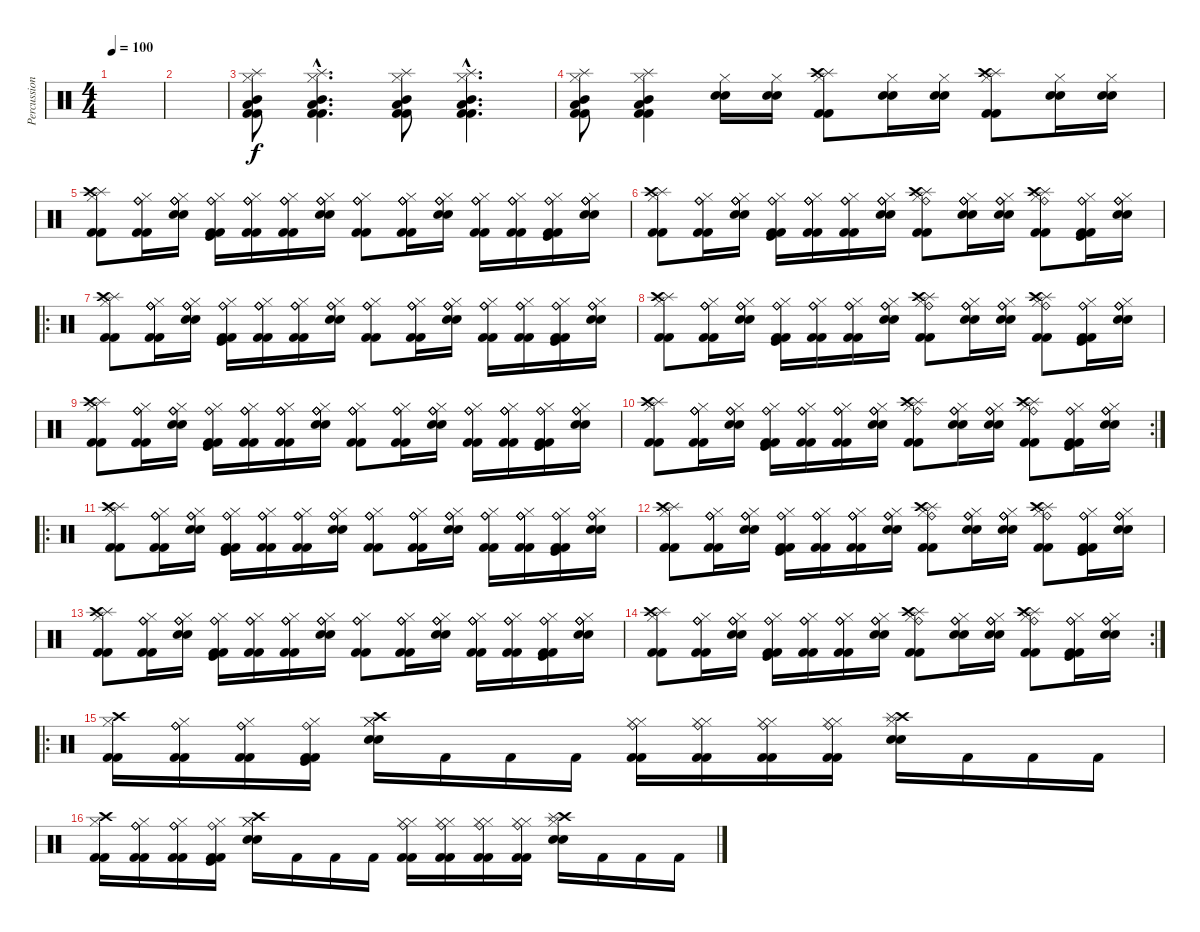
\track ("Percussion" "Percussion") {instrument percussion}
\staff {score}
\articulation defaults
\ts (4 4)
\tempo 100
\clef neutral
\ks c
|
|
("Splash (hit)" "Hi-Hat (closed)" "Low Tom (hit)" "Mid Tom (hit)" "Kick (hit) 2" "Kick (hit) 2").8 ("Splash (hit)"{hac} "Hi-Hat (closed)"{hac} "Low Tom (hit)"{hac} "Mid Tom (hit)"{hac} "Kick (hit) 2"{hac} "Kick (hit) 2"{hac}).4{d} ("Splash (hit)" "Hi-Hat (closed)" "Low Tom (hit)" "Mid Tom (hit)" "Kick (hit) 2" "Kick (hit) 2").8 ("Splash (hit)"{hac} "Hi-Hat (closed)"{hac} "Low Tom (hit)"{hac} "Mid Tom (hit)"{hac} "Kick (hit) 2"{hac} "Kick (hit) 2"{hac}).4{d} |
("Splash (hit)" "Hi-Hat (closed)" "Low Tom (hit)" "Mid Tom (hit)" "Kick (hit) 2" "Kick (hit) 2").8 ("Splash (hit)" "Hi-Hat (closed)" "Low Tom (hit)" "Mid Tom (hit)" "Kick (hit) 2" "Kick (hit) 2").4 ("Hi-Hat (closed)" "Snare (hit) 2" "Snare (hit) 2").16 ("Hi-Hat (closed)" "Snare (hit) 2" "Snare (hit) 2").16 ("Splash (hit)" "Crash high (hit)" "Hi-Hat (closed)" "Kick (hit) 2" "Kick (hit) 2").8 ("Hi-Hat (closed)" "Snare (hit) 2" "Snare (hit) 2").16 ("Hi-Hat (closed)" "Snare (hit) 2" "Snare (hit) 2").16 ("Splash (hit)" "Crash high (hit)" "Hi-Hat (closed)" "Kick (hit) 2" "Kick (hit) 2").8 ("Hi-Hat (closed)" "Snare (hit) 2" "Snare (hit) 2").16 ("Hi-Hat (closed)" "Snare (hit) 2" "Snare (hit) 2").16 |
("Splash (hit)" "Crash high (hit)" "Hi-Hat (closed)" "Kick (hit) 2" "Kick (hit) 2").8 ("Ride (bell)" "Ride (bell)" "Ride (bell)" "Hi-Hat (closed)" "Kick (hit) 2" "Kick (hit) 2").16 ("Ride (bell)" "Ride (bell)" "Ride (bell)" "Hi-Hat (closed)" "Snare (hit) 2" "Snare (hit) 2").16 ("Ride (bell)" "Ride (bell)" "Kick (hit)" "Hi-Hat (closed)" "Kick (hit) 2" "Kick (hit) 2").16 ("Ride (bell)" "Ride (bell)" "Ride (bell)" "Hi-Hat (closed)" "Kick (hit) 2" "Kick (hit) 2").16 ("Ride (bell)" "Ride (bell)" "Ride (bell)" "Hi-Hat (closed)" "Kick (hit) 2" "Kick (hit) 2").16 ("Ride (bell)" "Ride (bell)" "Ride (bell)" "Hi-Hat (closed)" "Snare (hit) 2" "Snare (hit) 2").16 ("Ride (bell)" "Ride (bell)" "Ride (bell)" "Hi-Hat (closed)" "Kick (hit) 2" "Kick (hit) 2").8 ("Ride (bell)" "Ride (bell)" "Ride (bell)" "Hi-Hat (closed)" "Kick (hit) 2" "Kick (hit) 2").16 ("Ride (bell)" "Ride (bell)" "Ride (bell)" "Hi-Hat (closed)" "Snare (hit) 2" "Snare (hit) 2").16 ("Ride (bell)" "Ride (bell)" "Ride (bell)" "Hi-Hat (closed)" "Kick (hit) 2" "Kick (hit) 2").16 ("Ride (bell)" "Ride (bell)" "Ride (bell)" "Hi-Hat (closed)" "Kick (hit) 2" "Kick (hit) 2").16 ("Kick (hit)" "Ride (bell)" "Ride (bell)" "Hi-Hat (closed)" "Kick (hit) 2" "Kick (hit) 2").16 ("Ride (bell)" "Ride (bell)" "Ride (bell)" "Hi-Hat (closed)" "Snare (hit) 2" "Snare (hit) 2").16 |
("Splash (hit)" "Crash high (hit)" "Hi-Hat (closed)" "Kick (hit) 2" "Kick (hit) 2").8 ("Ride (bell)" "Ride (bell)" "Ride (bell)" "Hi-Hat (closed)" "Kick (hit) 2" "Kick (hit) 2").16 ("Ride (bell)" "Ride (bell)" "Ride (bell)" "Hi-Hat (closed)" "Snare (hit) 2" "Snare (hit) 2").16 ("Ride (bell)" "Ride (bell)" "Kick (hit)" "Hi-Hat (closed)" "Kick (hit) 2" "Kick (hit) 2").16 ("Ride (bell)" "Ride (bell)" "Ride (bell)" "Hi-Hat (closed)" "Kick (hit) 2" "Kick (hit) 2").16 ("Ride (bell)" "Ride (bell)" "Ride (bell)" "Hi-Hat (closed)" "Kick (hit) 2" "Kick (hit) 2").16 ("Ride (bell)" "Ride (bell)" "Ride (bell)" "Hi-Hat (closed)" "Snare (hit) 2" "Snare (hit) 2").16 ("Splash (hit)" "Ride (bell)" "Crash high (hit)" "Hi-Hat (closed)" "Kick (hit) 2" "Kick (hit) 2").8 ("Ride (bell)" "Ride (bell)" "Ride (bell)" "Hi-Hat (closed)" "Snare (hit) 2" "Snare (hit) 2").16 ("Ride (bell)" "Ride (bell)" "Ride (bell)" "Hi-Hat (closed)" "Snare (hit) 2" "Snare (hit) 2").16 ("Splash (hit)" "Ride (bell)" "Crash high (hit)" "Hi-Hat (closed)" "Kick (hit) 2" "Kick (hit) 2").8 ("Kick (hit)" "Ride (bell)" "Ride (bell)" "Hi-Hat (closed)" "Kick (hit) 2" "Kick (hit) 2").16 ("Ride (bell)" "Ride (bell)" "Ride (bell)" "Hi-Hat (closed)" "Snare (hit) 2" "Snare (hit) 2").16 |
\ro
("Splash (hit)" "Crash high (hit)" "Hi-Hat (closed)" "Kick (hit) 2" "Kick (hit) 2").8 ("Ride (bell)" "Ride (bell)" "Ride (bell)" "Hi-Hat (closed)" "Kick (hit) 2" "Kick (hit) 2").16 ("Ride (bell)" "Ride (bell)" "Ride (bell)" "Hi-Hat (closed)" "Snare (hit) 2" "Snare (hit) 2").16 ("Ride (bell)" "Ride (bell)" "Kick (hit)" "Hi-Hat (closed)" "Kick (hit) 2" "Kick (hit) 2").16 ("Ride (bell)" "Ride (bell)" "Ride (bell)" "Hi-Hat (closed)" "Kick (hit) 2" "Kick (hit) 2").16 ("Ride (bell)" "Ride (bell)" "Ride (bell)" "Hi-Hat (closed)" "Kick (hit) 2" "Kick (hit) 2").16 ("Ride (bell)" "Ride (bell)" "Ride (bell)" "Hi-Hat (closed)" "Snare (hit) 2" "Snare (hit) 2").16 ("Ride (bell)" "Ride (bell)" "Ride (bell)" "Hi-Hat (closed)" "Kick (hit) 2" "Kick (hit) 2").8 ("Ride (bell)" "Ride (bell)" "Ride (bell)" "Hi-Hat (closed)" "Kick (hit) 2" "Kick (hit) 2").16 ("Ride (bell)" "Ride (bell)" "Ride (bell)" "Hi-Hat (closed)" "Snare (hit) 2" "Snare (hit) 2").16 ("Ride (bell)" "Ride (bell)" "Ride (bell)" "Hi-Hat (closed)" "Kick (hit) 2" "Kick (hit) 2").16 ("Ride (bell)" "Ride (bell)" "Ride (bell)" "Hi-Hat (closed)" "Kick (hit) 2" "Kick (hit) 2").16 ("Kick (hit)" "Ride (bell)" "Ride (bell)" "Hi-Hat (closed)" "Kick (hit) 2" "Kick (hit) 2").16 ("Ride (bell)" "Ride (bell)" "Ride (bell)" "Hi-Hat (closed)" "Snare (hit) 2" "Snare (hit) 2").16 |
("Splash (hit)" "Crash high (hit)" "Hi-Hat (closed)" "Kick (hit) 2" "Kick (hit) 2").8 ("Ride (bell)" "Ride (bell)" "Ride (bell)" "Hi-Hat (closed)" "Kick (hit) 2" "Kick (hit) 2").16 ("Ride (bell)" "Ride (bell)" "Ride (bell)" "Hi-Hat (closed)" "Snare (hit) 2" "Snare (hit) 2").16 ("Ride (bell)" "Ride (bell)" "Kick (hit)" "Hi-Hat (closed)" "Kick (hit) 2" "Kick (hit) 2").16 ("Ride (bell)" "Ride (bell)" "Ride (bell)" "Hi-Hat (closed)" "Kick (hit) 2" "Kick (hit) 2").16 ("Ride (bell)" "Ride (bell)" "Ride (bell)" "Hi-Hat (closed)" "Kick (hit) 2" "Kick (hit) 2").16 ("Ride (bell)" "Ride (bell)" "Ride (bell)" "Hi-Hat (closed)" "Snare (hit) 2" "Snare (hit) 2").16 ("Splash (hit)" "Ride (bell)" "Crash high (hit)" "Hi-Hat (closed)" "Kick (hit) 2" "Kick (hit) 2").8 ("Ride (bell)" "Ride (bell)" "Ride (bell)" "Hi-Hat (closed)" "Snare (hit) 2" "Snare (hit) 2").16 ("Ride (bell)" "Ride (bell)" "Ride (bell)" "Hi-Hat (closed)" "Snare (hit) 2" "Snare (hit) 2").16 ("Splash (hit)" "Ride (bell)" "Crash high (hit)" "Hi-Hat (closed)" "Kick (hit) 2" "Kick (hit) 2").8 ("Kick (hit)" "Ride (bell)" "Ride (bell)" "Hi-Hat (closed)" "Kick (hit) 2" "Kick (hit) 2").16 ("Ride (bell)" "Ride (bell)" "Ride (bell)" "Hi-Hat (closed)" "Snare (hit) 2" "Snare (hit) 2").16 |
("Splash (hit)" "Crash high (hit)" "Hi-Hat (closed)" "Kick (hit) 2" "Kick (hit) 2").8 ("Ride (bell)" "Ride (bell)" "Ride (bell)" "Hi-Hat (closed)" "Kick (hit) 2" "Kick (hit) 2").16 ("Ride (bell)" "Ride (bell)" "Ride (bell)" "Hi-Hat (closed)" "Snare (hit) 2" "Snare (hit) 2").16 ("Ride (bell)" "Ride (bell)" "Kick (hit)" "Hi-Hat (closed)" "Kick (hit) 2" "Kick (hit) 2").16 ("Ride (bell)" "Ride (bell)" "Ride (bell)" "Hi-Hat (closed)" "Kick (hit) 2" "Kick (hit) 2").16 ("Ride (bell)" "Ride (bell)" "Ride (bell)" "Hi-Hat (closed)" "Kick (hit) 2" "Kick (hit) 2").16 ("Ride (bell)" "Ride (bell)" "Ride (bell)" "Hi-Hat (closed)" "Snare (hit) 2" "Snare (hit) 2").16 ("Ride (bell)" "Ride (bell)" "Ride (bell)" "Hi-Hat (closed)" "Kick (hit) 2" "Kick (hit) 2").8 ("Ride (bell)" "Ride (bell)" "Ride (bell)" "Hi-Hat (closed)" "Kick (hit) 2" "Kick (hit) 2").16 ("Ride (bell)" "Ride (bell)" "Ride (bell)" "Hi-Hat (closed)" "Snare (hit) 2" "Snare (hit) 2").16 ("Ride (bell)" "Ride (bell)" "Ride (bell)" "Hi-Hat (closed)" "Kick (hit) 2" "Kick (hit) 2").16 ("Ride (bell)" "Ride (bell)" "Ride (bell)" "Hi-Hat (closed)" "Kick (hit) 2" "Kick (hit) 2").16 ("Kick (hit)" "Ride (bell)" "Ride (bell)" "Hi-Hat (closed)" "Kick (hit) 2" "Kick (hit) 2").16 ("Ride (bell)" "Ride (bell)" "Ride (bell)" "Hi-Hat (closed)" "Snare (hit) 2" "Snare (hit) 2").16 |
\rc 2
("Splash (hit)" "Crash high (hit)" "Hi-Hat (closed)" "Kick (hit) 2" "Kick (hit) 2").8 ("Ride (bell)" "Ride (bell)" "Ride (bell)" "Hi-Hat (closed)" "Kick (hit) 2" "Kick (hit) 2").16 ("Ride (bell)" "Ride (bell)" "Ride (bell)" "Hi-Hat (closed)" "Snare (hit) 2" "Snare (hit) 2").16 ("Ride (bell)" "Ride (bell)" "Kick (hit)" "Hi-Hat (closed)" "Kick (hit) 2" "Kick (hit) 2").16 ("Ride (bell)" "Ride (bell)" "Ride (bell)" "Hi-Hat (closed)" "Kick (hit) 2" "Kick (hit) 2").16 ("Ride (bell)" "Ride (bell)" "Ride (bell)" "Hi-Hat (closed)" "Kick (hit) 2" "Kick (hit) 2").16 ("Ride (bell)" "Ride (bell)" "Ride (bell)" "Hi-Hat (closed)" "Snare (hit) 2" "Snare (hit) 2").16 ("Splash (hit)" "Ride (bell)" "Crash high (hit)" "Hi-Hat (closed)" "Kick (hit) 2" "Kick (hit) 2").8 ("Ride (bell)" "Ride (bell)" "Ride (bell)" "Hi-Hat (closed)" "Snare (hit) 2" "Snare (hit) 2").16 ("Ride (bell)" "Ride (bell)" "Ride (bell)" "Hi-Hat (closed)" "Snare (hit) 2" "Snare (hit) 2").16 ("Splash (hit)" "Ride (bell)" "Crash high (hit)" "Hi-Hat (closed)" "Kick (hit) 2" "Kick (hit) 2").8 ("Kick (hit)" "Ride (bell)" "Ride (bell)" "Hi-Hat (closed)" "Kick (hit) 2" "Kick (hit) 2").16 ("Ride (bell)" "Ride (bell)" "Ride (bell)" "Hi-Hat (closed)" "Snare (hit) 2" "Snare (hit) 2").16 |
\ro
("Splash (hit)" "Crash high (hit)" "Hi-Hat (closed)" "Kick (hit) 2" "Kick (hit) 2").8 ("Ride (bell)" "Ride (bell)" "Ride (bell)" "Hi-Hat (closed)" "Kick (hit) 2" "Kick (hit) 2").16 ("Ride (bell)" "Ride (bell)" "Ride (bell)" "Hi-Hat (closed)" "Snare (hit) 2" "Snare (hit) 2").16 ("Ride (bell)" "Ride (bell)" "Kick (hit)" "Hi-Hat (closed)" "Kick (hit) 2" "Kick (hit) 2").16 ("Ride (bell)" "Ride (bell)" "Ride (bell)" "Hi-Hat (closed)" "Kick (hit) 2" "Kick (hit) 2").16 ("Ride (bell)" "Ride (bell)" "Ride (bell)" "Hi-Hat (closed)" "Kick (hit) 2" "Kick (hit) 2").16 ("Ride (bell)" "Ride (bell)" "Ride (bell)" "Hi-Hat (closed)" "Snare (hit) 2" "Snare (hit) 2").16 ("Ride (bell)" "Ride (bell)" "Ride (bell)" "Hi-Hat (closed)" "Kick (hit) 2" "Kick (hit) 2").8 ("Ride (bell)" "Ride (bell)" "Ride (bell)" "Hi-Hat (closed)" "Kick (hit) 2" "Kick (hit) 2").16 ("Ride (bell)" "Ride (bell)" "Ride (bell)" "Hi-Hat (closed)" "Snare (hit) 2" "Snare (hit) 2").16 ("Ride (bell)" "Ride (bell)" "Ride (bell)" "Hi-Hat (closed)" "Kick (hit) 2" "Kick (hit) 2").16 ("Ride (bell)" "Ride (bell)" "Ride (bell)" "Hi-Hat (closed)" "Kick (hit) 2" "Kick (hit) 2").16 ("Kick (hit)" "Ride (bell)" "Ride (bell)" "Hi-Hat (closed)" "Kick (hit) 2" "Kick (hit) 2").16 ("Ride (bell)" "Ride (bell)" "Ride (bell)" "Hi-Hat (closed)" "Snare (hit) 2" "Snare (hit) 2").16 |
("Splash (hit)" "Crash high (hit)" "Hi-Hat (closed)" "Kick (hit) 2" "Kick (hit) 2").8 ("Ride (bell)" "Ride (bell)" "Ride (bell)" "Hi-Hat (closed)" "Kick (hit) 2" "Kick (hit) 2").16 ("Ride (bell)" "Ride (bell)" "Ride (bell)" "Hi-Hat (closed)" "Snare (hit) 2" "Snare (hit) 2").16 ("Ride (bell)" "Ride (bell)" "Kick (hit)" "Hi-Hat (closed)" "Kick (hit) 2" "Kick (hit) 2").16 ("Ride (bell)" "Ride (bell)" "Ride (bell)" "Hi-Hat (closed)" "Kick (hit) 2" "Kick (hit) 2").16 ("Ride (bell)" "Ride (bell)" "Ride (bell)" "Hi-Hat (closed)" "Kick (hit) 2" "Kick (hit) 2").16 ("Ride (bell)" "Ride (bell)" "Ride (bell)" "Hi-Hat (closed)" "Snare (hit) 2" "Snare (hit) 2").16 ("Splash (hit)" "Ride (bell)" "Crash high (hit)" "Hi-Hat (closed)" "Kick (hit) 2" "Kick (hit) 2").8 ("Ride (bell)" "Ride (bell)" "Ride (bell)" "Hi-Hat (closed)" "Snare (hit) 2" "Snare (hit) 2").16 ("Ride (bell)" "Ride (bell)" "Ride (bell)" "Hi-Hat (closed)" "Snare (hit) 2" "Snare (hit) 2").16 ("Splash (hit)" "Ride (bell)" "Crash high (hit)" "Hi-Hat (closed)" "Kick (hit) 2" "Kick (hit) 2").8 ("Kick (hit)" "Ride (bell)" "Ride (bell)" "Hi-Hat (closed)" "Kick (hit) 2" "Kick (hit) 2").16 ("Ride (bell)" "Ride (bell)" "Ride (bell)" "Hi-Hat (closed)" "Snare (hit) 2" "Snare (hit) 2").16 |
("Splash (hit)" "Crash high (hit)" "Hi-Hat (closed)" "Kick (hit) 2" "Kick (hit) 2").8 ("Ride (bell)" "Ride (bell)" "Ride (bell)" "Hi-Hat (closed)" "Kick (hit) 2" "Kick (hit) 2").16 ("Ride (bell)" "Ride (bell)" "Ride (bell)" "Hi-Hat (closed)" "Snare (hit) 2" "Snare (hit) 2").16 ("Ride (bell)" "Ride (bell)" "Kick (hit)" "Hi-Hat (closed)" "Kick (hit) 2" "Kick (hit) 2").16 ("Ride (bell)" "Ride (bell)" "Ride (bell)" "Hi-Hat (closed)" "Kick (hit) 2" "Kick (hit) 2").16 ("Ride (bell)" "Ride (bell)" "Ride (bell)" "Hi-Hat (closed)" "Kick (hit) 2" "Kick (hit) 2").16 ("Ride (bell)" "Ride (bell)" "Ride (bell)" "Hi-Hat (closed)" "Snare (hit) 2" "Snare (hit) 2").16 ("Ride (bell)" "Ride (bell)" "Ride (bell)" "Hi-Hat (closed)" "Kick (hit) 2" "Kick (hit) 2").8 ("Ride (bell)" "Ride (bell)" "Ride (bell)" "Hi-Hat (closed)" "Kick (hit) 2" "Kick (hit) 2").16 ("Ride (bell)" "Ride (bell)" "Ride (bell)" "Hi-Hat (closed)" "Snare (hit) 2" "Snare (hit) 2").16 ("Ride (bell)" "Ride (bell)" "Ride (bell)" "Hi-Hat (closed)" "Kick (hit) 2" "Kick (hit) 2").16 ("Ride (bell)" "Ride (bell)" "Ride (bell)" "Hi-Hat (closed)" "Kick (hit) 2" "Kick (hit) 2").16 ("Kick (hit)" "Ride (bell)" "Ride (bell)" "Hi-Hat (closed)" "Kick (hit) 2" "Kick (hit) 2").16 ("Ride (bell)" "Ride (bell)" "Ride (bell)" "Hi-Hat (closed)" "Snare (hit) 2" "Snare (hit) 2").16 |
\rc 2
("Splash (hit)" "Crash high (hit)" "Hi-Hat (closed)" "Kick (hit) 2" "Kick (hit) 2").8 ("Ride (bell)" "Ride (bell)" "Ride (bell)" "Hi-Hat (closed)" "Kick (hit) 2" "Kick (hit) 2").16 ("Ride (bell)" "Ride (bell)" "Ride (bell)" "Hi-Hat (closed)" "Snare (hit) 2" "Snare (hit) 2").16 ("Ride (bell)" "Ride (bell)" "Kick (hit)" "Hi-Hat (closed)" "Kick (hit) 2" "Kick (hit) 2").16 ("Ride (bell)" "Ride (bell)" "Ride (bell)" "Hi-Hat (closed)" "Kick (hit) 2" "Kick (hit) 2").16 ("Ride (bell)" "Ride (bell)" "Ride (bell)" "Hi-Hat (closed)" "Kick (hit) 2" "Kick (hit) 2").16 ("Ride (bell)" "Ride (bell)" "Ride (bell)" "Hi-Hat (closed)" "Snare (hit) 2" "Snare (hit) 2").16 ("Splash (hit)" "Ride (bell)" "Crash high (hit)" "Hi-Hat (closed)" "Kick (hit) 2" "Kick (hit) 2").8 ("Ride (bell)" "Ride (bell)" "Ride (bell)" "Hi-Hat (closed)" "Snare (hit) 2" "Snare (hit) 2").16 ("Ride (bell)" "Ride (bell)" "Ride (bell)" "Hi-Hat (closed)" "Snare (hit) 2" "Snare (hit) 2").16 ("Splash (hit)" "Ride (bell)" "Crash high (hit)" "Hi-Hat (closed)" "Kick (hit) 2" "Kick (hit) 2").8 ("Kick (hit)" "Ride (bell)" "Ride (bell)" "Hi-Hat (closed)" "Kick (hit) 2" "Kick (hit) 2").16 ("Ride (bell)" "Ride (bell)" "Ride (bell)" "Hi-Hat (closed)" "Snare (hit) 2" "Snare (hit) 2").16 |
\ro
("Crash high (hit)" "Hi-Hat (closed)" "Kick (hit) 2" "Kick (hit) 2").16 ("Ride (bell)" "Ride (bell)" "Hi-Hat (closed)" "Kick (hit) 2" "Kick (hit) 2").16 ("Ride (bell)" "Ride (bell)" "Hi-Hat (closed)" "Kick (hit) 2" "Kick (hit) 2").16 ("Ride (bell)" "Kick (hit)" "Hi-Hat (closed)" "Kick (hit) 2" "Kick (hit) 2").16 ("Crash high (hit)" "Hi-Hat (closed)" "Hi-Hat (closed)" "Snare (hit) 2" "Snare (hit) 2").16 "Kick (hit) 2".16 "Kick (hit) 2".16 "Kick (hit) 2".16 ("Ride (bell)" "Hi-Hat (closed)" "Hi-Hat (closed)" "Kick (hit) 2" "Kick (hit) 2").16 ("Ride (bell)" "Hi-Hat (closed)" "Hi-Hat (closed)" "Kick (hit) 2" "Kick (hit) 2").16 ("Ride (bell)" "Hi-Hat (closed)" "Hi-Hat (closed)" "Kick (hit) 2" "Kick (hit) 2").16 ("Ride (bell)" "Hi-Hat (closed)" "Hi-Hat (closed)" "Kick (hit) 2" "Kick (hit) 2").16 ("Crash high (hit)" "Splash (hit)" "Hi-Hat (closed)" "Snare (hit) 2" "Snare (hit) 2").16 "Kick (hit) 2".16 "Kick (hit) 2".16 "Kick (hit) 2".16 |
("Crash high (hit)" "Hi-Hat (closed)" "Kick (hit) 2" "Kick (hit) 2").16 ("Ride (bell)" "Ride (bell)" "Hi-Hat (closed)" "Kick (hit) 2" "Kick (hit) 2").16 ("Ride (bell)" "Ride (bell)" "Hi-Hat (closed)" "Kick (hit) 2" "Kick (hit) 2").16 ("Ride (bell)" "Kick (hit)" "Hi-Hat (closed)" "Kick (hit) 2" "Kick (hit) 2").16 ("Crash high (hit)" "Hi-Hat (closed)" "Hi-Hat (closed)" "Snare (hit) 2" "Snare (hit) 2").16 "Kick (hit) 2".16 "Kick (hit) 2".16 "Kick (hit) 2".16 ("Ride (bell)" "Hi-Hat (closed)" "Hi-Hat (closed)" "Kick (hit) 2" "Kick (hit) 2").16 ("Ride (bell)" "Hi-Hat (closed)" "Hi-Hat (closed)" "Kick (hit) 2" "Kick (hit) 2").16 ("Ride (bell)" "Hi-Hat (closed)" "Hi-Hat (closed)" "Kick (hit) 2" "Kick (hit) 2").16 ("Ride (bell)" "Hi-Hat (closed)" "Hi-Hat (closed)" "Kick (hit) 2" "Kick (hit) 2").16 ("Crash high (hit)" "Splash (hit)" "Hi-Hat (closed)" "Snare (hit) 2" "Snare (hit) 2").16 "Kick (hit) 2".16 "Kick (hit) 2".16 "Kick (hit) 2".16
